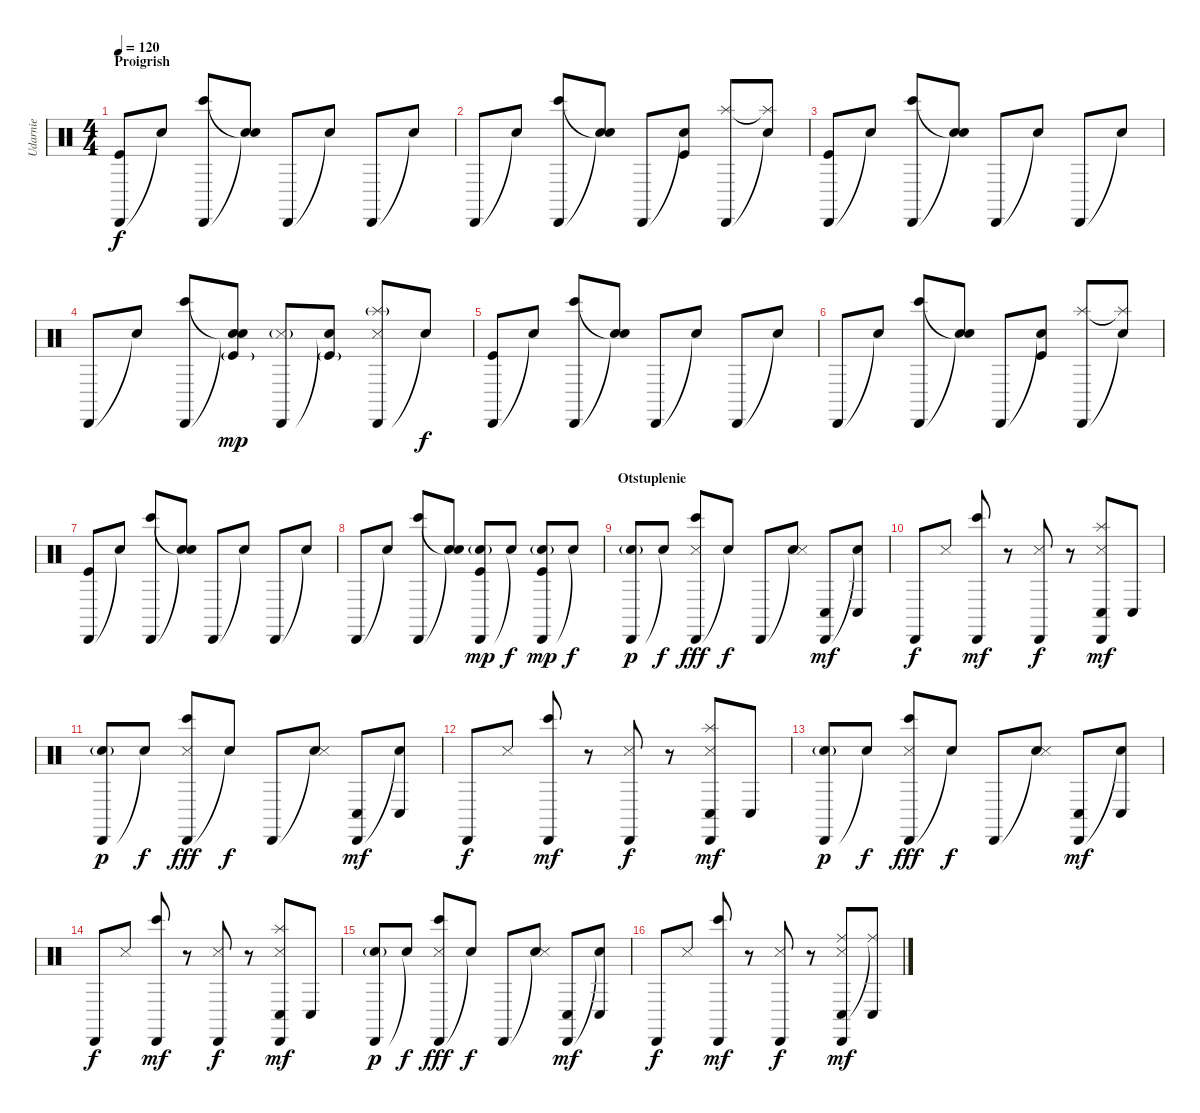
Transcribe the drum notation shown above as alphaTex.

\track ("Udarnie" "Udarnie") {instrument percussion}
\staff {score}
\articulation defaults
\ts (4 4)
\section ("" "Proigrish")
\tempo 120
\clef neutral
\ks c
("Cabasa (hit)" "Kick (hit)").8{dy f} "Snare (hit)"{t}.8 ("Cabasa (hit)" "Bongo High (hit)").8 ("Snare (hit)"{t} "Snare (hit)"{t}).8 "Cabasa (hit)".8 "Snare (hit)"{t}.8 "Cabasa (hit)".8 "Snare (hit)"{t}.8 |
"Cabasa (hit)".8 "Snare (hit)"{t}.8 ("Cabasa (hit)" "Bongo High (hit)").8 ("Snare (hit)"{t} "Snare (hit)"{t}).8 "Cabasa (hit)".8 ("Snare (hit)"{t} "Kick (hit)").8 ("Cabasa (hit)" "Splash (hit)").8 ("Snare (hit)"{t} "Splash (hit)"{t}).8 |
("Cabasa (hit)" "Kick (hit)").8 "Snare (hit)"{t}.8 ("Cabasa (hit)" "Bongo High (hit)").8 ("Snare (hit)"{t} "Snare (hit)"{t}).8 "Cabasa (hit)".8 "Snare (hit)"{t}.8 "Cabasa (hit)".8 "Snare (hit)"{t}.8 |
"Cabasa (hit)".8 "Snare (hit)"{t}.8 ("Cabasa (hit)" "Bongo High (hit)").8 ("Snare (hit)"{t} "Snare (hit)"{t} "Kick (hit)"{g}).8{dy mp} ("Cabasa (hit)" "Snare (side stick) 3"{g}).8 ("Snare (hit)"{t} "Kick (hit)"{g}).8 ("Cabasa (hit)" "Snare (side stick) 3" "Splash (hit)"{g}).8 "Snare (hit)"{t}.8{dy f} |
("Cabasa (hit)" "Kick (hit)").8 "Snare (hit)"{t}.8 ("Cabasa (hit)" "Bongo High (hit)").8 ("Snare (hit)"{t} "Snare (hit)"{t}).8 "Cabasa (hit)".8 "Snare (hit)"{t}.8 "Cabasa (hit)".8 "Snare (hit)"{t}.8 |
"Cabasa (hit)".8 "Snare (hit)"{t}.8 ("Cabasa (hit)" "Bongo High (hit)").8 ("Snare (hit)"{t} "Snare (hit)"{t}).8 "Cabasa (hit)".8 ("Snare (hit)"{t} "Kick (hit)").8 ("Cabasa (hit)" "Splash (hit)").8 ("Snare (hit)"{t} "Splash (hit)"{t}).8 |
("Cabasa (hit)" "Kick (hit)").8 "Snare (hit)"{t}.8 ("Cabasa (hit)" "Bongo High (hit)").8 ("Snare (hit)"{t} "Snare (hit)"{t}).8 "Cabasa (hit)".8 "Snare (hit)"{t}.8 "Cabasa (hit)".8 "Snare (hit)"{t}.8 |
"Cabasa (hit)".8 "Snare (hit)"{t}.8 ("Cabasa (hit)" "Bongo High (hit)").8 ("Snare (hit)"{t} "Snare (hit)"{t}).8 ("Cabasa (hit)" "Electric Snare (hit)"{g} "Kick (hit)").8{dy mp} "Snare (hit)"{t}.8{dy f} ("Cabasa (hit)" "Electric Snare (hit)"{g} "Kick (hit)").8{dy mp} "Snare (hit)"{t}.8{dy f} |
\section ("" "Otstuplenie")
("Cabasa (hit)" "Electric Snare (hit)"{g}).8{dy p} "Snare (hit)"{t}.8{dy f} ("Cabasa (hit)" "Bongo High (hit)" "Snare (side stick) 3").8{dy fff} "Snare (hit)"{t}.8{dy f} "Cabasa (hit)".8 ("Snare (hit)"{t} "Snare (side stick) 3").8 ("Cabasa (hit)" "Conga low (hit)").8{dy mf} ("Snare (hit)"{t} "Conga low (hit)").8 |
"Cabasa (hit)".8{dy f} "Snare (side stick) 3".8 ("Cabasa (hit)" "Bongo High (hit)").8{dy mf} r.8 ("Cabasa (hit)" "Snare (side stick) 3").8{dy f} r.8 ("Cabasa (hit)" "Conga low (hit)" "Snare (side stick) 3" "Splash (hit)").8{dy mf} "Conga low (hit)".8 |
("Cabasa (hit)" "Electric Snare (hit)"{g}).8{dy p} "Snare (hit)"{t}.8{dy f} ("Cabasa (hit)" "Bongo High (hit)" "Snare (side stick) 3").8{dy fff} "Snare (hit)"{t}.8{dy f} "Cabasa (hit)".8 ("Snare (hit)"{t} "Snare (side stick) 3").8 ("Cabasa (hit)" "Conga low (hit)").8{dy mf} ("Snare (hit)"{t} "Conga low (hit)").8 |
"Cabasa (hit)".8{dy f} "Snare (side stick) 3".8 ("Cabasa (hit)" "Bongo High (hit)").8{dy mf} r.8 ("Cabasa (hit)" "Snare (side stick) 3").8{dy f} r.8 ("Cabasa (hit)" "Conga low (hit)" "Snare (side stick) 3" "Splash (hit)").8{dy mf} "Conga low (hit)".8 |
("Cabasa (hit)" "Electric Snare (hit)"{g}).8{dy p} "Snare (hit)"{t}.8{dy f} ("Cabasa (hit)" "Bongo High (hit)" "Snare (side stick) 3").8{dy fff} "Snare (hit)"{t}.8{dy f} "Cabasa (hit)".8 ("Snare (hit)"{t} "Snare (side stick) 3").8 ("Cabasa (hit)" "Conga low (hit)").8{dy mf} ("Snare (hit)"{t} "Conga low (hit)").8 |
"Cabasa (hit)".8{dy f} "Snare (side stick) 3".8 ("Cabasa (hit)" "Bongo High (hit)").8{dy mf} r.8 ("Cabasa (hit)" "Snare (side stick) 3").8{dy f} r.8 ("Cabasa (hit)" "Conga low (hit)" "Snare (side stick) 3" "Splash (hit)").8{dy mf} "Conga low (hit)".8 |
("Cabasa (hit)" "Electric Snare (hit)"{g}).8{dy p} "Snare (hit)"{t}.8{dy f} ("Cabasa (hit)" "Bongo High (hit)" "Snare (side stick) 3").8{dy fff} "Snare (hit)"{t}.8{dy f} "Cabasa (hit)".8 ("Snare (hit)"{t} "Snare (side stick) 3").8 ("Cabasa (hit)" "Conga low (hit)").8{dy mf} ("Snare (hit)"{t} "Conga low (hit)").8 |
"Cabasa (hit)".8{dy f} "Snare (side stick) 3".8 ("Cabasa (hit)" "Bongo High (hit)").8{dy mf} r.8 ("Cabasa (hit)" "Snare (side stick) 3").8{dy f} r.8 ("Cabasa (hit)" "Conga low (hit)" "Snare (side stick) 3" "Ride (middle)").8{dy mf} ("Conga low (hit)" "Ride (middle)"{t}).8
